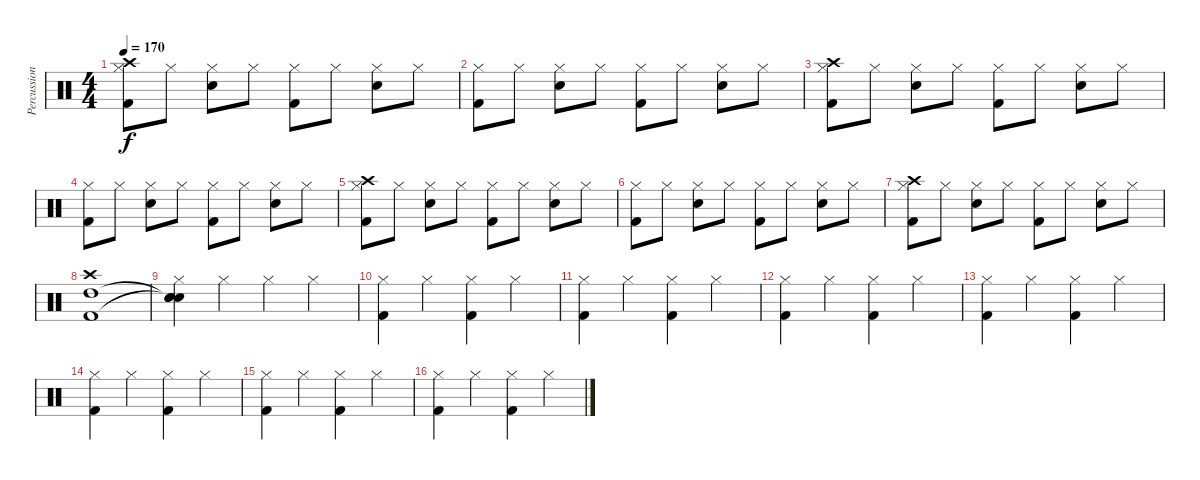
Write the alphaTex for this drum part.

\track ("Percussion" "Percussion") {instrument percussion}
\staff {score}
\articulation defaults
\ts (4 4)
\tempo 170
\clef neutral
\ks c
("Hi-Hat (closed)" "Crash high (hit)" "Kick (hit) 2").8{dy f} "Hi-Hat (closed)".8 ("Hi-Hat (closed)" "Snare (hit) 2").8 "Hi-Hat (closed)".8 ("Hi-Hat (closed)" "Kick (hit) 2").8 "Hi-Hat (closed)".8 ("Hi-Hat (closed)" "Snare (hit) 2").8 "Hi-Hat (closed)".8 |
("Hi-Hat (closed)" "Kick (hit) 2").8 "Hi-Hat (closed)".8 ("Hi-Hat (closed)" "Snare (hit) 2").8 "Hi-Hat (closed)".8 ("Hi-Hat (closed)" "Kick (hit) 2").8 "Hi-Hat (closed)".8 ("Hi-Hat (closed)" "Snare (hit) 2").8 "Hi-Hat (closed)".8 |
("Hi-Hat (closed)" "Crash high (hit)" "Kick (hit) 2").8 "Hi-Hat (closed)".8 ("Hi-Hat (closed)" "Snare (hit) 2").8 "Hi-Hat (closed)".8 ("Hi-Hat (closed)" "Kick (hit) 2").8 "Hi-Hat (closed)".8 ("Hi-Hat (closed)" "Snare (hit) 2").8 "Hi-Hat (closed)".8 |
("Hi-Hat (closed)" "Kick (hit) 2").8 "Hi-Hat (closed)".8 ("Hi-Hat (closed)" "Snare (hit) 2").8 "Hi-Hat (closed)".8 ("Hi-Hat (closed)" "Kick (hit) 2").8 "Hi-Hat (closed)".8 ("Hi-Hat (closed)" "Snare (hit) 2").8 "Hi-Hat (closed)".8 |
("Hi-Hat (closed)" "Crash high (hit)" "Kick (hit) 2").8 "Hi-Hat (closed)".8 ("Hi-Hat (closed)" "Snare (hit) 2").8 "Hi-Hat (closed)".8 ("Hi-Hat (closed)" "Kick (hit) 2").8 "Hi-Hat (closed)".8 ("Hi-Hat (closed)" "Snare (hit) 2").8 "Hi-Hat (closed)".8 |
("Hi-Hat (closed)" "Kick (hit) 2").8 "Hi-Hat (closed)".8 ("Hi-Hat (closed)" "Snare (hit) 2").8 "Hi-Hat (closed)".8 ("Hi-Hat (closed)" "Kick (hit) 2").8 "Hi-Hat (closed)".8 ("Hi-Hat (closed)" "Snare (hit) 2").8 "Hi-Hat (closed)".8 |
("Hi-Hat (closed)" "Crash high (hit)" "Kick (hit) 2").8 "Hi-Hat (closed)".8 ("Hi-Hat (closed)" "Snare (hit) 2").8 "Hi-Hat (closed)".8 ("Hi-Hat (closed)" "Kick (hit) 2").8 "Hi-Hat (closed)".8 ("Hi-Hat (closed)" "Snare (hit) 2").8 "Hi-Hat (closed)".8 |
("Crash high (hit)" "High Tom (hit)" "Kick (hit) 2").1 |
("Hi-Hat (closed)" "Snare (hit)"{t} "Snare (hit)"{t} "Snare (hit)").4 "Hi-Hat (closed)".4 "Hi-Hat (closed)".4 "Hi-Hat (closed)".4 |
("Hi-Hat (closed)" "Kick (hit) 2").4 "Hi-Hat (closed)".4 ("Hi-Hat (closed)" "Kick (hit) 2").4 "Hi-Hat (closed)".4 |
("Hi-Hat (closed)" "Kick (hit) 2").4 "Hi-Hat (closed)".4 ("Hi-Hat (closed)" "Kick (hit) 2").4 "Hi-Hat (closed)".4 |
("Hi-Hat (closed)" "Kick (hit) 2").4 "Hi-Hat (closed)".4 ("Hi-Hat (closed)" "Kick (hit) 2").4 "Hi-Hat (closed)".4 |
("Hi-Hat (closed)" "Kick (hit) 2").4 "Hi-Hat (closed)".4 ("Hi-Hat (closed)" "Kick (hit) 2").4 "Hi-Hat (closed)".4 |
("Hi-Hat (closed)" "Kick (hit) 2").4 "Hi-Hat (closed)".4 ("Hi-Hat (closed)" "Kick (hit) 2").4 "Hi-Hat (closed)".4 |
("Hi-Hat (closed)" "Kick (hit) 2").4 "Hi-Hat (closed)".4 ("Hi-Hat (closed)" "Kick (hit) 2").4 "Hi-Hat (closed)".4 |
("Hi-Hat (closed)" "Kick (hit) 2").4 "Hi-Hat (closed)".4 ("Hi-Hat (closed)" "Kick (hit) 2").4 "Hi-Hat (closed)".4
